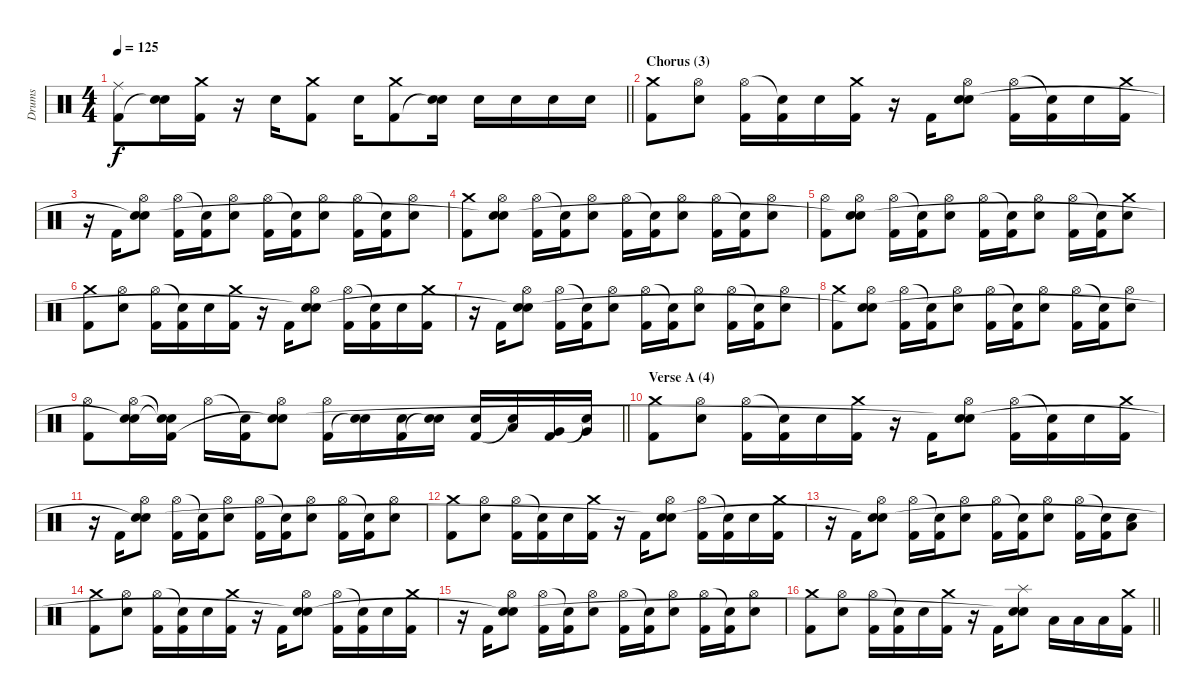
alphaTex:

\track ("Drums" "Drums") {instrument percussion}
\staff {score}
\articulation defaults
\ts (4 4)
\tempo 125
\clef neutral
\barLineRight lightlight
\ks c
("Ride (middle)" "Kick (hit) 2").8{dy f} ("Electric Snare (hit)" "Snare (hit)"{t}).16 ("Crash medium (hit)" "Kick (hit) 2").16 r.16 "Electric Snare (hit)".16 ("Crash medium (hit)" "Kick (hit) 2").8 "Electric Snare (hit)".16 ("Crash medium (hit)" "Kick (hit) 2").8 ("Electric Snare (hit)" "Snare (hit)"{t}).16 "Electric Snare (hit)".16 "Electric Snare (hit)".16 "Electric Snare (hit)".16 "Electric Snare (hit)".16 |
\section ("" "Chorus (3)")
("Crash medium (hit)" "Kick (hit) 2").8 ("Hi-Hat (open)" "Electric Snare (hit)").8 ("Hi-Hat (open)" "Kick (hit) 2").16 ("Snare (hit)"{t} "Kick (hit) 2").16 "Electric Snare (hit)".16 ("Crash medium (hit)" "Kick (hit) 2").16 r.16 "Kick (hit) 2".16 ("Hi-Hat (open)" "Electric Snare (hit)" "Snare (hit)"{t}).8 ("Hi-Hat (open)" "Kick (hit) 2").16 ("Snare (hit)"{t} "Kick (hit) 2").16 "Electric Snare (hit)".16 ("Crash medium (hit)" "Kick (hit) 2").16 |
r.16 "Kick (hit) 2".16 ("Hi-Hat (open)" "Electric Snare (hit)" "Snare (hit)"{t}).8 ("Hi-Hat (open)" "Kick (hit) 2").16 ("Snare (hit)"{t} "Kick (hit) 2").16 ("Hi-Hat (open)" "Electric Snare (hit)").8 ("Hi-Hat (open)" "Kick (hit) 2").16 ("Snare (hit)"{t} "Kick (hit) 2").16 ("Hi-Hat (open)" "Electric Snare (hit)").8 ("Hi-Hat (open)" "Kick (hit) 2").16 ("Snare (hit)"{t} "Kick (hit) 2").16 ("Hi-Hat (open)" "Electric Snare (hit)").8 |
("Crash medium (hit)" "Kick (hit) 2").8 ("Hi-Hat (open)" "Electric Snare (hit)" "Snare (hit)"{t}).8 ("Hi-Hat (open)" "Kick (hit) 2").16 ("Snare (hit)"{t} "Kick (hit) 2").16 ("Hi-Hat (open)" "Electric Snare (hit)").8 ("Hi-Hat (open)" "Kick (hit) 2").16 ("Snare (hit)"{t} "Kick (hit) 2").16 ("Hi-Hat (open)" "Electric Snare (hit)").8 ("Hi-Hat (open)" "Kick (hit) 2").16 ("Snare (hit)"{t} "Kick (hit) 2").16 ("Hi-Hat (open)" "Electric Snare (hit)").8 |
("Hi-Hat (open)" "Kick (hit) 2").8 ("Hi-Hat (open)" "Electric Snare (hit)" "Snare (hit)"{t}).8 ("Hi-Hat (open)" "Kick (hit) 2").16 ("Snare (hit)"{t} "Kick (hit) 2").16 ("Hi-Hat (open)" "Electric Snare (hit)").8 ("Hi-Hat (open)" "Kick (hit) 2").16 ("Snare (hit)"{t} "Kick (hit) 2").16 ("Hi-Hat (open)" "Electric Snare (hit)").8 ("Hi-Hat (open)" "Kick (hit) 2").16 ("Snare (hit)"{t} "Kick (hit) 2").16 ("Crash medium (hit)" "Electric Snare (hit)").8 |
("Crash medium (hit)" "Kick (hit) 2").8 ("Hi-Hat (open)" "Electric Snare (hit)").8 ("Hi-Hat (open)" "Kick (hit) 2").16 ("Snare (hit)"{t} "Kick (hit) 2").16 "Electric Snare (hit)".16 ("Crash medium (hit)" "Kick (hit) 2").16 r.16 "Kick (hit) 2".16 ("Hi-Hat (open)" "Electric Snare (hit)" "Snare (hit)"{t}).8 ("Hi-Hat (open)" "Kick (hit) 2").16 ("Snare (hit)"{t} "Kick (hit) 2").16 "Electric Snare (hit)".16 ("Crash medium (hit)" "Kick (hit) 2").16 |
r.16 "Kick (hit) 2".16 ("Hi-Hat (open)" "Electric Snare (hit)" "Snare (hit)"{t}).8 ("Hi-Hat (open)" "Kick (hit) 2").16 ("Snare (hit)"{t} "Kick (hit) 2").16 ("Hi-Hat (open)" "Electric Snare (hit)").8 ("Hi-Hat (open)" "Kick (hit) 2").16 ("Snare (hit)"{t} "Kick (hit) 2").16 ("Hi-Hat (open)" "Electric Snare (hit)").8 ("Hi-Hat (open)" "Kick (hit) 2").16 ("Snare (hit)"{t} "Kick (hit) 2").16 ("Hi-Hat (open)" "Electric Snare (hit)").8 |
("Crash medium (hit)" "Kick (hit) 2").8 ("Hi-Hat (open)" "Electric Snare (hit)" "Snare (hit)"{t}).8 ("Hi-Hat (open)" "Kick (hit) 2").16 ("Snare (hit)"{t} "Kick (hit) 2").16 ("Hi-Hat (open)" "Electric Snare (hit)").8 ("Hi-Hat (open)" "Kick (hit) 2").16 ("Snare (hit)"{t} "Kick (hit) 2").16 ("Hi-Hat (open)" "Electric Snare (hit)").8 ("Hi-Hat (open)" "Kick (hit) 2").16 ("Snare (hit)"{t} "Kick (hit) 2").16 ("Hi-Hat (open)" "Electric Snare (hit)").8 |
\barLineRight lightlight
("Hi-Hat (open)" "Kick (hit) 2").8 ("Hi-Hat (open)" "Electric Snare (hit)" "Snare (hit)"{t}).16 ("Snare (hit)"{t} "Snare (hit)"{t} "Kick (hit) 2").16 "Hi-Hat (open)".16 ("Snare (hit)"{t} "Kick (hit) 2").16 ("Hi-Hat (open)" "Electric Snare (hit)" "Snare (hit)"{t}).8 ("Hi-Hat (open)" "Kick (hit) 2").16 ("Electric Snare (hit)" "Snare (hit)"{t}).16 ("Electric Snare (hit)" "Kick (hit) 2").16 ("Electric Snare (hit)" "Snare (hit)"{t}).16 ("Electric Snare (hit)" "Kick (hit) 2").16 ("Low Tom (hit)" "Snare (hit)"{t}).16 ("Very Low Tom (hit)" "Kick (hit) 2").16 ("Very Low Tom (hit)" "Snare (hit)"{t}).16 |
\section ("" "Verse A (4)")
("Crash medium (hit)" "Kick (hit) 2").8 ("Hi-Hat (open)" "Electric Snare (hit)").8 ("Hi-Hat (open)" "Kick (hit) 2").16 ("Snare (hit)"{t} "Kick (hit) 2").16 "Electric Snare (hit)".16 ("Crash medium (hit)" "Kick (hit) 2").16 r.16 "Kick (hit) 2".16 ("Hi-Hat (open)" "Electric Snare (hit)" "Snare (hit)"{t}).8 ("Hi-Hat (open)" "Kick (hit) 2").16 ("Snare (hit)"{t} "Kick (hit) 2").16 "Electric Snare (hit)".16 ("Crash medium (hit)" "Kick (hit) 2").16 |
r.16 "Kick (hit) 2".16 ("Hi-Hat (open)" "Electric Snare (hit)" "Snare (hit)"{t}).8 ("Hi-Hat (open)" "Kick (hit) 2").16 ("Snare (hit)"{t} "Kick (hit) 2").16 ("Hi-Hat (open)" "Electric Snare (hit)").8 ("Hi-Hat (open)" "Kick (hit) 2").16 ("Snare (hit)"{t} "Kick (hit) 2").16 ("Hi-Hat (open)" "Electric Snare (hit)").8 ("Hi-Hat (open)" "Kick (hit) 2").16 ("Snare (hit)"{t} "Kick (hit) 2").16 ("Hi-Hat (open)" "Electric Snare (hit)").8 |
("Crash medium (hit)" "Kick (hit) 2").8 ("Hi-Hat (open)" "Electric Snare (hit)").8 ("Hi-Hat (open)" "Kick (hit) 2").16 ("Snare (hit)"{t} "Kick (hit) 2").16 "Electric Snare (hit)".16 ("Crash medium (hit)" "Kick (hit) 2").16 r.16 "Kick (hit) 2".16 ("Hi-Hat (open)" "Electric Snare (hit)" "Snare (hit)"{t}).8 ("Hi-Hat (open)" "Kick (hit) 2").16 ("Snare (hit)"{t} "Kick (hit) 2").16 "Electric Snare (hit)".16 ("Crash medium (hit)" "Kick (hit) 2").16 |
r.16 "Kick (hit) 2".16 ("Hi-Hat (open)" "Electric Snare (hit)" "Snare (hit)"{t}).8 ("Hi-Hat (open)" "Kick (hit) 2").16 ("Snare (hit)"{t} "Kick (hit) 2").16 ("Hi-Hat (open)" "Electric Snare (hit)").8 ("Hi-Hat (open)" "Kick (hit) 2").16 ("Snare (hit)"{t} "Kick (hit) 2").16 ("Hi-Hat (open)" "Electric Snare (hit)").8 ("Hi-Hat (open)" "Kick (hit) 2").16 ("Snare (hit)"{t} "Kick (hit) 2").16 ("Electric Snare (hit)" "Low Floor Tom (hit)").8 |
("Crash medium (hit)" "Kick (hit) 2").8 ("Hi-Hat (open)" "Electric Snare (hit)").8 ("Hi-Hat (open)" "Kick (hit) 2").16 ("Snare (hit)"{t} "Kick (hit) 2").16 "Electric Snare (hit)".16 ("Crash medium (hit)" "Kick (hit) 2").16 r.16 "Kick (hit) 2".16 ("Hi-Hat (open)" "Electric Snare (hit)" "Snare (hit)"{t}).8 ("Hi-Hat (open)" "Kick (hit) 2").16 ("Snare (hit)"{t} "Kick (hit) 2").16 "Electric Snare (hit)".16 ("Crash medium (hit)" "Kick (hit) 2").16 |
r.16 "Kick (hit) 2".16 ("Hi-Hat (open)" "Electric Snare (hit)" "Snare (hit)"{t}).8 ("Hi-Hat (open)" "Kick (hit) 2").16 ("Snare (hit)"{t} "Kick (hit) 2").16 ("Hi-Hat (open)" "Electric Snare (hit)").8 ("Hi-Hat (open)" "Kick (hit) 2").16 ("Snare (hit)"{t} "Kick (hit) 2").16 ("Hi-Hat (open)" "Electric Snare (hit)").8 ("Hi-Hat (open)" "Kick (hit) 2").16 ("Snare (hit)"{t} "Kick (hit) 2").16 ("Hi-Hat (open)" "Electric Snare (hit)").8 |
\barLineRight lightlight
("Crash medium (hit)" "Kick (hit) 2").8 ("Hi-Hat (open)" "Electric Snare (hit)").8 ("Hi-Hat (open)" "Kick (hit) 2").16 ("Snare (hit)"{t} "Kick (hit) 2").16 "Electric Snare (hit)".16 ("Crash medium (hit)" "Kick (hit) 2").16 r.16 "Kick (hit) 2".16 ("Splash (hit)" "Electric Snare (hit)" "Snare (hit)"{t}).8 "Low Tom (hit)".16 "Low Tom (hit)".16 "Low Tom (hit)".16 ("Crash medium (hit)" "Kick (hit) 2").16
